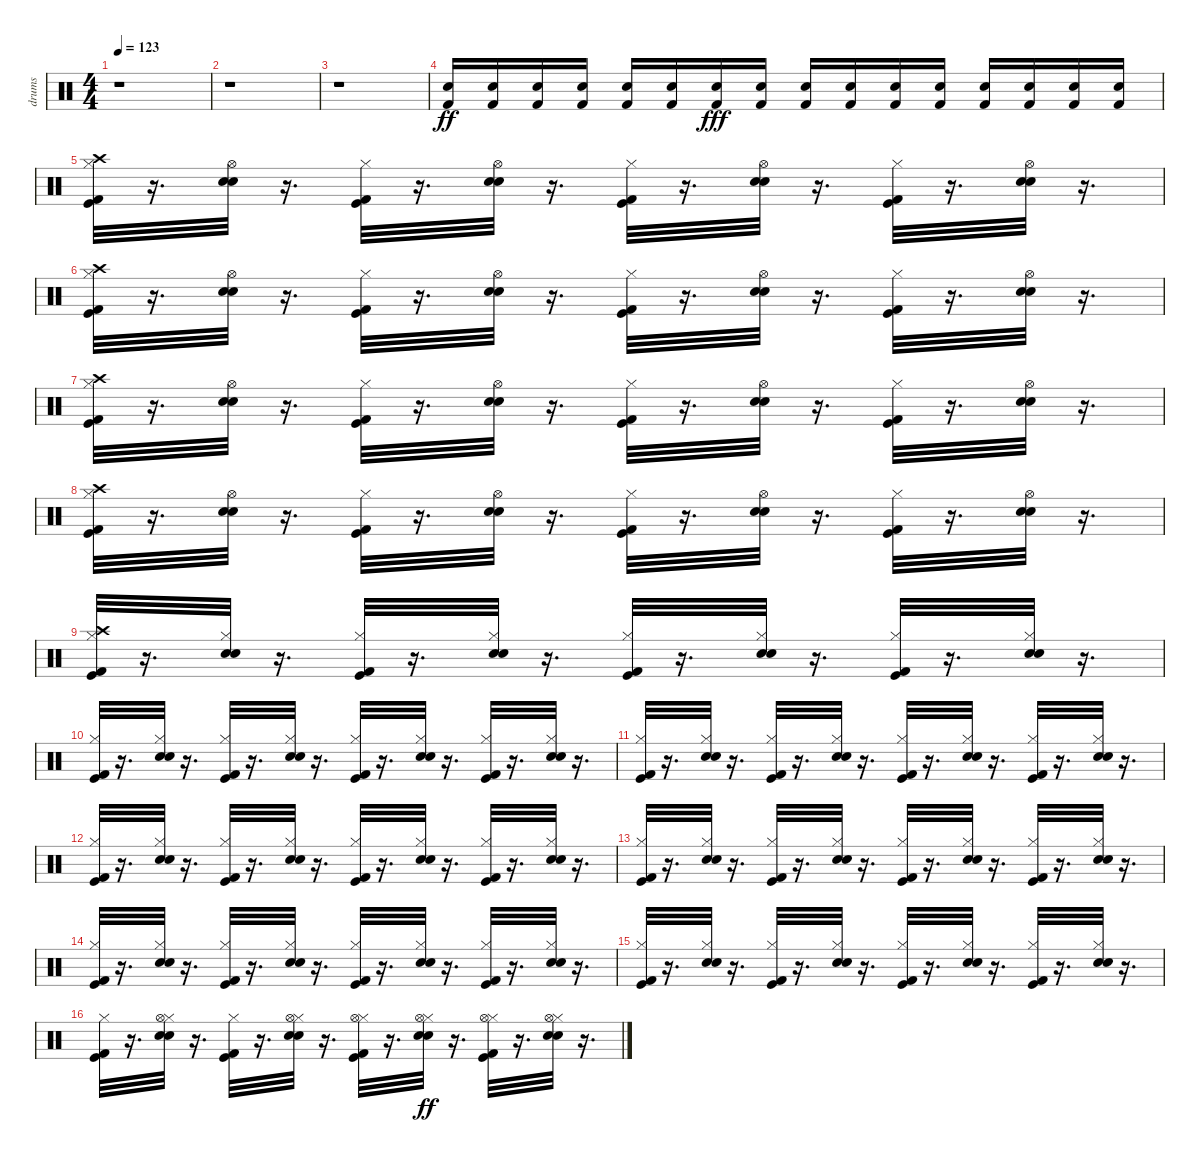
\track ("drums" "drums") {instrument percussion}
\staff {score}
\articulation defaults
\ts (4 4)
\tempo 123
\clef neutral
\ks c
r.1{dy ff} |
r.1 |
r.1 |
("Kick (hit) 2" "Snare (hit) 2").16 ("Snare (hit) 2" "Kick (hit) 2").16 ("Snare (hit) 2" "Kick (hit) 2").16 ("Snare (hit) 2" "Kick (hit) 2").16 ("Snare (hit) 2" "Kick (hit) 2").16 ("Snare (hit) 2" "Kick (hit) 2").16 ("Snare (hit) 2" "Kick (hit) 2").16{dy fff} ("Snare (hit) 2" "Kick (hit) 2").16 ("Snare (hit) 2" "Kick (hit) 2").16 ("Snare (hit) 2" "Kick (hit) 2").16 ("Snare (hit) 2" "Kick (hit) 2").16 ("Snare (hit) 2" "Kick (hit) 2").16 ("Snare (hit) 2" "Kick (hit) 2").16 ("Snare (hit) 2" "Kick (hit) 2").16 ("Snare (hit) 2" "Kick (hit) 2").16 ("Snare (hit) 2" "Kick (hit) 2").16 |
("Crash high (hit)" "Hi-Hat (closed)" "Kick (hit)" "Kick (hit) 2").32 r.16{d} ("Electric Snare (hit)" "Snare (hit) 2" "Hi-Hat (open)").32 r.16{d} ("Kick (hit) 2" "Kick (hit)" "Hi-Hat (closed)").32 r.16{d} ("Snare (hit) 2" "Electric Snare (hit)" "Hi-Hat (open)").32 r.16{d} ("Kick (hit) 2" "Kick (hit)" "Hi-Hat (closed)").32 r.16{d} ("Snare (hit) 2" "Electric Snare (hit)" "Hi-Hat (open)").32 r.16{d} ("Kick (hit) 2" "Kick (hit)" "Hi-Hat (closed)").32 r.16{d} ("Snare (hit) 2" "Electric Snare (hit)" "Hi-Hat (open)").32 r.16{d} |
("Kick (hit) 2" "Kick (hit)" "Hi-Hat (closed)" "Crash high (hit)").32 r.16{d} ("Electric Snare (hit)" "Snare (hit) 2" "Hi-Hat (open)").32 r.16{d} ("Kick (hit) 2" "Kick (hit)" "Hi-Hat (closed)").32 r.16{d} ("Snare (hit) 2" "Electric Snare (hit)" "Hi-Hat (open)").32 r.16{d} ("Kick (hit) 2" "Kick (hit)" "Hi-Hat (closed)").32 r.16{d} ("Snare (hit) 2" "Electric Snare (hit)" "Hi-Hat (open)").32 r.16{d} ("Kick (hit) 2" "Kick (hit)" "Hi-Hat (closed)").32 r.16{d} ("Snare (hit) 2" "Electric Snare (hit)" "Hi-Hat (open)").32 r.16{d} |
("Kick (hit) 2" "Kick (hit)" "Hi-Hat (closed)" "Crash high (hit)").32 r.16{d} ("Electric Snare (hit)" "Snare (hit) 2" "Hi-Hat (open)").32 r.16{d} ("Kick (hit) 2" "Kick (hit)" "Hi-Hat (closed)").32 r.16{d} ("Snare (hit) 2" "Electric Snare (hit)" "Hi-Hat (open)").32 r.16{d} ("Kick (hit) 2" "Kick (hit)" "Hi-Hat (closed)").32 r.16{d} ("Snare (hit) 2" "Electric Snare (hit)" "Hi-Hat (open)").32 r.16{d} ("Kick (hit) 2" "Kick (hit)" "Hi-Hat (closed)").32 r.16{d} ("Snare (hit) 2" "Electric Snare (hit)" "Hi-Hat (open)").32 r.16{d} |
("Kick (hit) 2" "Kick (hit)" "Hi-Hat (closed)" "Crash high (hit)").32 r.16{d} ("Electric Snare (hit)" "Snare (hit) 2" "Hi-Hat (open)").32 r.16{d} ("Kick (hit) 2" "Kick (hit)" "Hi-Hat (closed)").32 r.16{d} ("Snare (hit) 2" "Electric Snare (hit)" "Hi-Hat (open)").32 r.16{d} ("Kick (hit) 2" "Kick (hit)" "Hi-Hat (closed)").32 r.16{d} ("Snare (hit) 2" "Electric Snare (hit)" "Hi-Hat (open)").32 r.16{d} ("Kick (hit) 2" "Kick (hit)" "Hi-Hat (closed)").32 r.16{d} ("Snare (hit) 2" "Electric Snare (hit)" "Hi-Hat (open)").32 r.16{d} |
("Kick (hit) 2" "Kick (hit)" "Hi-Hat (closed)" "Crash high (hit)").32 r.16{d} ("Electric Snare (hit)" "Snare (hit) 2" "Hi-Hat (closed)").32 r.16{d} ("Kick (hit) 2" "Kick (hit)" "Hi-Hat (closed)").32 r.16{d} ("Snare (hit) 2" "Electric Snare (hit)" "Hi-Hat (closed)").32 r.16{d} ("Kick (hit) 2" "Kick (hit)" "Hi-Hat (closed)").32 r.16{d} ("Snare (hit) 2" "Electric Snare (hit)" "Hi-Hat (closed)").32 r.16{d} ("Kick (hit) 2" "Kick (hit)" "Hi-Hat (closed)").32 r.16{d} ("Snare (hit) 2" "Electric Snare (hit)" "Hi-Hat (closed)").32 r.16{d} |
("Kick (hit) 2" "Kick (hit)" "Hi-Hat (closed)").32 r.16{d} ("Electric Snare (hit)" "Snare (hit) 2" "Hi-Hat (closed)").32 r.16{d} ("Kick (hit) 2" "Kick (hit)" "Hi-Hat (closed)").32 r.16{d} ("Snare (hit) 2" "Electric Snare (hit)" "Hi-Hat (closed)").32 r.16{d} ("Kick (hit) 2" "Kick (hit)" "Hi-Hat (closed)").32 r.16{d} ("Snare (hit) 2" "Electric Snare (hit)" "Hi-Hat (closed)").32 r.16{d} ("Kick (hit) 2" "Kick (hit)" "Hi-Hat (closed)").32 r.16{d} ("Snare (hit) 2" "Electric Snare (hit)" "Hi-Hat (closed)").32 r.16{d} |
("Hi-Hat (closed)" "Kick (hit)" "Kick (hit) 2").32 r.16{d} ("Electric Snare (hit)" "Snare (hit) 2" "Hi-Hat (closed)").32 r.16{d} ("Kick (hit) 2" "Kick (hit)" "Hi-Hat (closed)").32 r.16{d} ("Snare (hit) 2" "Electric Snare (hit)" "Hi-Hat (closed)").32 r.16{d} ("Kick (hit) 2" "Kick (hit)" "Hi-Hat (closed)").32 r.16{d} ("Snare (hit) 2" "Electric Snare (hit)" "Hi-Hat (closed)").32 r.16{d} ("Kick (hit) 2" "Kick (hit)" "Hi-Hat (closed)").32 r.16{d} ("Snare (hit) 2" "Electric Snare (hit)" "Hi-Hat (closed)").32 r.16{d} |
("Hi-Hat (closed)" "Kick (hit)" "Kick (hit) 2").32 r.16{d} ("Electric Snare (hit)" "Snare (hit) 2" "Hi-Hat (closed)").32 r.16{d} ("Kick (hit) 2" "Kick (hit)" "Hi-Hat (closed)").32 r.16{d} ("Snare (hit) 2" "Electric Snare (hit)" "Hi-Hat (closed)").32 r.16{d} ("Kick (hit) 2" "Kick (hit)" "Hi-Hat (closed)").32 r.16{d} ("Snare (hit) 2" "Electric Snare (hit)" "Hi-Hat (closed)").32 r.16{d} ("Kick (hit) 2" "Kick (hit)" "Hi-Hat (closed)").32 r.16{d} ("Snare (hit) 2" "Electric Snare (hit)" "Hi-Hat (closed)").32 r.16{d} |
("Hi-Hat (closed)" "Kick (hit)" "Kick (hit) 2").32 r.16{d} ("Electric Snare (hit)" "Snare (hit) 2" "Hi-Hat (closed)").32 r.16{d} ("Kick (hit) 2" "Kick (hit)" "Hi-Hat (closed)").32 r.16{d} ("Snare (hit) 2" "Electric Snare (hit)" "Hi-Hat (closed)").32 r.16{d} ("Kick (hit) 2" "Kick (hit)" "Hi-Hat (closed)").32 r.16{d} ("Snare (hit) 2" "Electric Snare (hit)" "Hi-Hat (closed)").32 r.16{d} ("Kick (hit) 2" "Kick (hit)" "Hi-Hat (closed)").32 r.16{d} ("Snare (hit) 2" "Electric Snare (hit)" "Hi-Hat (closed)").32 r.16{d} |
("Hi-Hat (closed)" "Kick (hit)" "Kick (hit) 2").32 r.16{d} ("Electric Snare (hit)" "Snare (hit) 2" "Hi-Hat (closed)").32 r.16{d} ("Kick (hit) 2" "Kick (hit)" "Hi-Hat (closed)").32 r.16{d} ("Snare (hit) 2" "Electric Snare (hit)" "Hi-Hat (closed)").32 r.16{d} ("Kick (hit) 2" "Kick (hit)" "Hi-Hat (closed)").32 r.16{d} ("Snare (hit) 2" "Electric Snare (hit)" "Hi-Hat (closed)").32 r.16{d} ("Kick (hit) 2" "Kick (hit)" "Hi-Hat (closed)").32 r.16{d} ("Snare (hit) 2" "Electric Snare (hit)" "Hi-Hat (closed)").32 r.16{d} |
("Hi-Hat (closed)" "Kick (hit)" "Kick (hit) 2").32 r.16{d} ("Electric Snare (hit)" "Snare (hit) 2" "Hi-Hat (closed)").32 r.16{d} ("Kick (hit) 2" "Kick (hit)" "Hi-Hat (closed)").32 r.16{d} ("Snare (hit) 2" "Electric Snare (hit)" "Hi-Hat (closed)").32 r.16{d} ("Kick (hit) 2" "Kick (hit)" "Hi-Hat (closed)").32 r.16{d} ("Snare (hit) 2" "Electric Snare (hit)" "Hi-Hat (closed)").32 r.16{d} ("Kick (hit) 2" "Kick (hit)" "Hi-Hat (closed)").32 r.16{d} ("Snare (hit) 2" "Electric Snare (hit)" "Hi-Hat (closed)").32 r.16{d} |
("Hi-Hat (closed)" "Kick (hit)" "Kick (hit) 2").32 r.16{d} ("Electric Snare (hit)" "Snare (hit) 2" "Hi-Hat (closed)" "Hi-Hat (open)").32 r.16{d} ("Kick (hit) 2" "Kick (hit)" "Hi-Hat (closed)").32 r.16{d} ("Snare (hit) 2" "Electric Snare (hit)" "Hi-Hat (closed)" "Hi-Hat (open)").32 r.16{d} ("Kick (hit) 2" "Kick (hit)" "Hi-Hat (closed)" "Hi-Hat (open)").32 r.16{d} ("Snare (hit) 2" "Electric Snare (hit)" "Hi-Hat (closed)" "Hi-Hat (open)").32{dy ff} r.16{d} ("Kick (hit) 2" "Kick (hit)" "Hi-Hat (closed)" "Hi-Hat (open)").32 r.16{d} ("Snare (hit) 2" "Electric Snare (hit)" "Hi-Hat (closed)" "Hi-Hat (open)").32 r.16{d}
